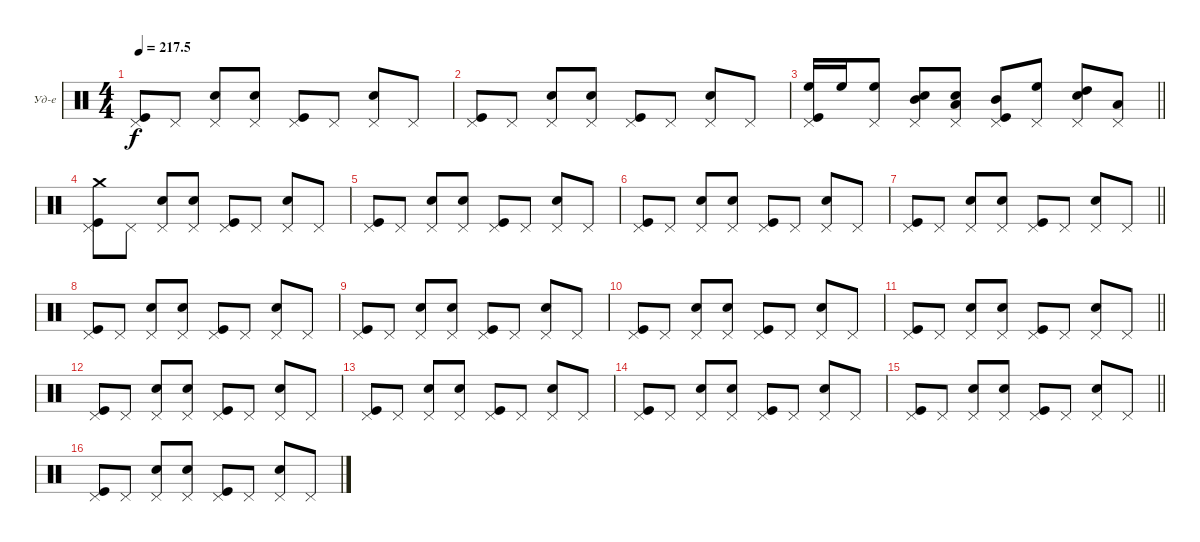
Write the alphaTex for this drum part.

\bracketExtendMode groupsimilarinstruments
\firstSystemTrackNameOrientation horizontal
\otherSystemsTrackNameOrientation horizontal
\track ("Ударные" "Уд-е") {instrument percussion}
\staff {score}
\articulation defaults
\ts (4 4)
\tempo
217.5
\accidentals auto
\clef neutral
\ottava regular
\simile none
\ks c
("Pedal Hi-Hat (hit)" "Kick (hit)").8{dy f} "Pedal Hi-Hat (hit)".8 ("Pedal Hi-Hat (hit)" "Snare (hit) 2").8 ("Pedal Hi-Hat (hit)" "Snare (hit) 2").8 ("Pedal Hi-Hat (hit)" "Kick (hit)").8 "Pedal Hi-Hat (hit)".8 ("Pedal Hi-Hat (hit)" "Snare (hit) 2").8 "Pedal Hi-Hat (hit)".8 |
("Pedal Hi-Hat (hit)" "Kick (hit)").8 "Pedal Hi-Hat (hit)".8 ("Pedal Hi-Hat (hit)" "Snare (hit) 2").8 ("Pedal Hi-Hat (hit)" "Snare (hit) 2").8 ("Pedal Hi-Hat (hit)" "Kick (hit)").8 "Pedal Hi-Hat (hit)".8 ("Pedal Hi-Hat (hit)" "Snare (hit) 2").8 "Pedal Hi-Hat (hit)".8 |
\barLineRight lightlight
("Pedal Hi-Hat (hit)" "Kick (hit)" "High Floor Tom (hit)").16 "High Floor Tom (hit)".16 ("Pedal Hi-Hat (hit)" "High Floor Tom (hit)").8 ("Pedal Hi-Hat (hit)" "Snare (hit) 2" "Mid Tom (hit)").8 ("Pedal Hi-Hat (hit)" "Snare (hit) 2" "Low Tom (hit)").8 ("Pedal Hi-Hat (hit)" "Kick (hit)" "Mid Tom (hit)").8 ("Pedal Hi-Hat (hit)" "High Floor Tom (hit)").8 ("Pedal Hi-Hat (hit)" "Snare (hit) 2" "High Tom (hit)").8 ("Pedal Hi-Hat (hit)" "Low Tom (hit)").8 |
("Pedal Hi-Hat (hit)" "Kick (hit)" "Crash medium (hit)").8 "Pedal Hi-Hat (hit)".8 ("Pedal Hi-Hat (hit)" "Snare (hit) 2").8 ("Pedal Hi-Hat (hit)" "Snare (hit) 2").8 ("Pedal Hi-Hat (hit)" "Kick (hit)").8 "Pedal Hi-Hat (hit)".8 ("Pedal Hi-Hat (hit)" "Snare (hit) 2").8 "Pedal Hi-Hat (hit)".8 |
("Pedal Hi-Hat (hit)" "Kick (hit)").8 "Pedal Hi-Hat (hit)".8 ("Pedal Hi-Hat (hit)" "Snare (hit) 2").8 ("Pedal Hi-Hat (hit)" "Snare (hit) 2").8 ("Pedal Hi-Hat (hit)" "Kick (hit)").8 "Pedal Hi-Hat (hit)".8 ("Pedal Hi-Hat (hit)" "Snare (hit) 2").8 "Pedal Hi-Hat (hit)".8 |
("Pedal Hi-Hat (hit)" "Kick (hit)").8 "Pedal Hi-Hat (hit)".8 ("Pedal Hi-Hat (hit)" "Snare (hit) 2").8 ("Pedal Hi-Hat (hit)" "Snare (hit) 2").8 ("Pedal Hi-Hat (hit)" "Kick (hit)").8 "Pedal Hi-Hat (hit)".8 ("Pedal Hi-Hat (hit)" "Snare (hit) 2").8 "Pedal Hi-Hat (hit)".8 |
\barLineRight lightlight
("Pedal Hi-Hat (hit)" "Kick (hit)").8 "Pedal Hi-Hat (hit)".8 ("Pedal Hi-Hat (hit)" "Snare (hit) 2").8 ("Pedal Hi-Hat (hit)" "Snare (hit) 2").8 ("Pedal Hi-Hat (hit)" "Kick (hit)").8 "Pedal Hi-Hat (hit)".8 ("Pedal Hi-Hat (hit)" "Snare (hit) 2").8 "Pedal Hi-Hat (hit)".8 |
("Pedal Hi-Hat (hit)" "Kick (hit)").8 "Pedal Hi-Hat (hit)".8 ("Pedal Hi-Hat (hit)" "Snare (hit) 2").8 ("Pedal Hi-Hat (hit)" "Snare (hit) 2").8 ("Pedal Hi-Hat (hit)" "Kick (hit)").8 "Pedal Hi-Hat (hit)".8 ("Pedal Hi-Hat (hit)" "Snare (hit) 2").8 "Pedal Hi-Hat (hit)".8 |
("Pedal Hi-Hat (hit)" "Kick (hit)").8 "Pedal Hi-Hat (hit)".8 ("Pedal Hi-Hat (hit)" "Snare (hit) 2").8 ("Pedal Hi-Hat (hit)" "Snare (hit) 2").8 ("Pedal Hi-Hat (hit)" "Kick (hit)").8 "Pedal Hi-Hat (hit)".8 ("Pedal Hi-Hat (hit)" "Snare (hit) 2").8 "Pedal Hi-Hat (hit)".8 |
("Pedal Hi-Hat (hit)" "Kick (hit)").8 "Pedal Hi-Hat (hit)".8 ("Pedal Hi-Hat (hit)" "Snare (hit) 2").8 ("Pedal Hi-Hat (hit)" "Snare (hit) 2").8 ("Pedal Hi-Hat (hit)" "Kick (hit)").8 "Pedal Hi-Hat (hit)".8 ("Pedal Hi-Hat (hit)" "Snare (hit) 2").8 "Pedal Hi-Hat (hit)".8 |
\barLineRight lightlight
("Pedal Hi-Hat (hit)" "Kick (hit)").8 "Pedal Hi-Hat (hit)".8 ("Pedal Hi-Hat (hit)" "Snare (hit) 2").8 ("Pedal Hi-Hat (hit)" "Snare (hit) 2").8 ("Pedal Hi-Hat (hit)" "Kick (hit)").8 "Pedal Hi-Hat (hit)".8 ("Pedal Hi-Hat (hit)" "Snare (hit) 2").8 "Pedal Hi-Hat (hit)".8 |
("Pedal Hi-Hat (hit)" "Kick (hit)").8 "Pedal Hi-Hat (hit)".8 ("Pedal Hi-Hat (hit)" "Snare (hit) 2").8 ("Pedal Hi-Hat (hit)" "Snare (hit) 2").8 ("Pedal Hi-Hat (hit)" "Kick (hit)").8 "Pedal Hi-Hat (hit)".8 ("Pedal Hi-Hat (hit)" "Snare (hit) 2").8 "Pedal Hi-Hat (hit)".8 |
("Pedal Hi-Hat (hit)" "Kick (hit)").8 "Pedal Hi-Hat (hit)".8 ("Pedal Hi-Hat (hit)" "Snare (hit) 2").8 ("Pedal Hi-Hat (hit)" "Snare (hit) 2").8 ("Pedal Hi-Hat (hit)" "Kick (hit)").8 "Pedal Hi-Hat (hit)".8 ("Pedal Hi-Hat (hit)" "Snare (hit) 2").8 "Pedal Hi-Hat (hit)".8 |
("Pedal Hi-Hat (hit)" "Kick (hit)").8 "Pedal Hi-Hat (hit)".8 ("Pedal Hi-Hat (hit)" "Snare (hit) 2").8 ("Pedal Hi-Hat (hit)" "Snare (hit) 2").8 ("Pedal Hi-Hat (hit)" "Kick (hit)").8 "Pedal Hi-Hat (hit)".8 ("Pedal Hi-Hat (hit)" "Snare (hit) 2").8 "Pedal Hi-Hat (hit)".8 |
\barLineRight lightlight
("Pedal Hi-Hat (hit)" "Kick (hit)").8 "Pedal Hi-Hat (hit)".8 ("Pedal Hi-Hat (hit)" "Snare (hit) 2").8 ("Pedal Hi-Hat (hit)" "Snare (hit) 2").8 ("Pedal Hi-Hat (hit)" "Kick (hit)").8 "Pedal Hi-Hat (hit)".8 ("Pedal Hi-Hat (hit)" "Snare (hit) 2").8 "Pedal Hi-Hat (hit)".8 |
("Pedal Hi-Hat (hit)" "Kick (hit)").8 "Pedal Hi-Hat (hit)".8 ("Pedal Hi-Hat (hit)" "Snare (hit) 2").8 ("Pedal Hi-Hat (hit)" "Snare (hit) 2").8 ("Pedal Hi-Hat (hit)" "Kick (hit)").8 "Pedal Hi-Hat (hit)".8 ("Pedal Hi-Hat (hit)" "Snare (hit) 2").8 "Pedal Hi-Hat (hit)".8
